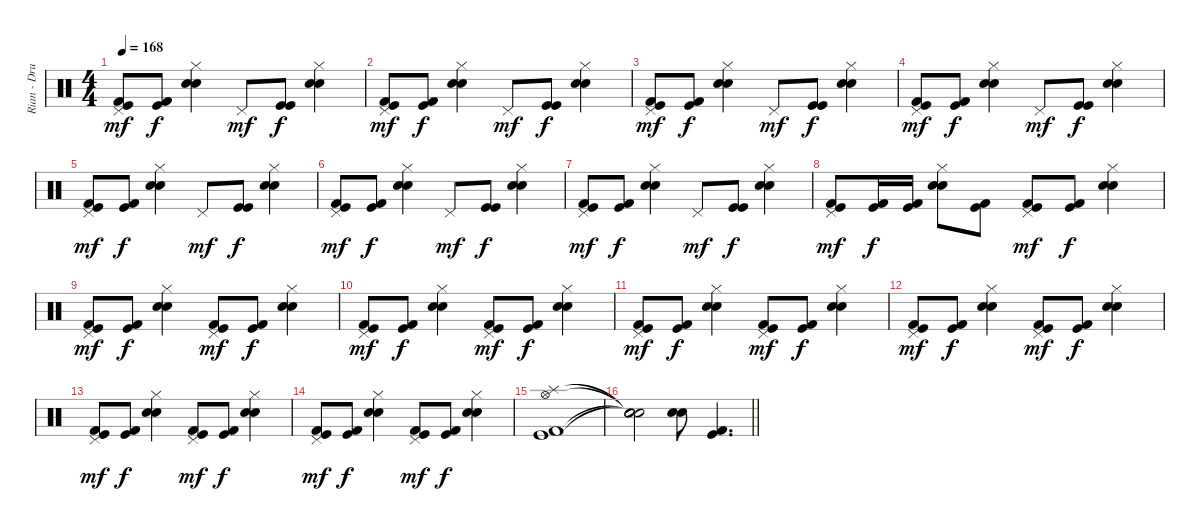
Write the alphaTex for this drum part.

\track ("Rian - Drums" "Rian - Dru") {instrument percussion}
\staff {score}
\articulation defaults
\ts (4 4)
\tempo 168
\clef neutral
\ks c
("Kick (hit) 2" "Kick (hit)" "Pedal Hi-Hat (hit)").8{dy mf} ("Kick (hit) 2" "Kick (hit)").8{dy f} ("Electric Snare (hit)" "Electric Snare (hit)" "Hi-Hat (closed)").4 "Pedal Hi-Hat (hit)".8{dy mf} ("Kick (hit)" "Kick (hit)").8{dy f} ("Electric Snare (hit)" "Electric Snare (hit)" "Hi-Hat (closed)").4 |
("Kick (hit) 2" "Kick (hit)" "Pedal Hi-Hat (hit)").8{dy mf} ("Kick (hit) 2" "Kick (hit)").8{dy f} ("Electric Snare (hit)" "Electric Snare (hit)" "Hi-Hat (closed)").4 "Pedal Hi-Hat (hit)".8{dy mf} ("Kick (hit)" "Kick (hit)").8{dy f} ("Electric Snare (hit)" "Electric Snare (hit)" "Hi-Hat (closed)").4 |
("Kick (hit) 2" "Kick (hit)" "Pedal Hi-Hat (hit)").8{dy mf} ("Kick (hit) 2" "Kick (hit)").8{dy f} ("Electric Snare (hit)" "Electric Snare (hit)" "Hi-Hat (closed)").4 "Pedal Hi-Hat (hit)".8{dy mf} ("Kick (hit)" "Kick (hit)").8{dy f} ("Electric Snare (hit)" "Electric Snare (hit)" "Hi-Hat (closed)").4 |
("Kick (hit) 2" "Kick (hit)" "Pedal Hi-Hat (hit)").8{dy mf} ("Kick (hit) 2" "Kick (hit)").8{dy f} ("Electric Snare (hit)" "Electric Snare (hit)" "Hi-Hat (closed)").4 "Pedal Hi-Hat (hit)".8{dy mf} ("Kick (hit)" "Kick (hit)").8{dy f} ("Electric Snare (hit)" "Electric Snare (hit)" "Hi-Hat (closed)").4 |
("Kick (hit) 2" "Kick (hit)" "Pedal Hi-Hat (hit)").8{dy mf} ("Kick (hit) 2" "Kick (hit)").8{dy f} ("Electric Snare (hit)" "Electric Snare (hit)" "Hi-Hat (closed)").4 "Pedal Hi-Hat (hit)".8{dy mf} ("Kick (hit)" "Kick (hit)").8{dy f} ("Electric Snare (hit)" "Electric Snare (hit)" "Hi-Hat (closed)").4 |
("Kick (hit) 2" "Kick (hit)" "Pedal Hi-Hat (hit)").8{dy mf} ("Kick (hit) 2" "Kick (hit)").8{dy f} ("Electric Snare (hit)" "Electric Snare (hit)" "Hi-Hat (closed)").4 "Pedal Hi-Hat (hit)".8{dy mf} ("Kick (hit)" "Kick (hit)").8{dy f} ("Electric Snare (hit)" "Electric Snare (hit)" "Hi-Hat (closed)").4 |
("Kick (hit) 2" "Kick (hit)" "Pedal Hi-Hat (hit)").8{dy mf} ("Kick (hit) 2" "Kick (hit)").8{dy f} ("Electric Snare (hit)" "Electric Snare (hit)" "Hi-Hat (closed)").4 "Pedal Hi-Hat (hit)".8{dy mf} ("Kick (hit)" "Kick (hit)").8{dy f} ("Electric Snare (hit)" "Electric Snare (hit)" "Hi-Hat (closed)").4 |
("Kick (hit) 2" "Kick (hit)" "Pedal Hi-Hat (hit)").8{dy mf} ("Kick (hit) 2" "Kick (hit)").16{dy f} ("Kick (hit) 2" "Kick (hit)").16 ("Electric Snare (hit)" "Electric Snare (hit)" "Hi-Hat (closed)").8 ("Kick (hit) 2" "Kick (hit)").8 ("Kick (hit) 2" "Kick (hit)" "Pedal Hi-Hat (hit)").8{dy mf} ("Kick (hit) 2" "Kick (hit)").8{dy f} ("Electric Snare (hit)" "Electric Snare (hit)" "Hi-Hat (closed)").4 |
("Kick (hit) 2" "Kick (hit)" "Pedal Hi-Hat (hit)").8{dy mf} ("Kick (hit) 2" "Kick (hit)").8{dy f} ("Electric Snare (hit)" "Electric Snare (hit)" "Hi-Hat (closed)").4 ("Kick (hit) 2" "Kick (hit)" "Pedal Hi-Hat (hit)").8{dy mf} ("Kick (hit) 2" "Kick (hit)").8{dy f} ("Electric Snare (hit)" "Electric Snare (hit)" "Hi-Hat (closed)").4 |
("Kick (hit) 2" "Kick (hit)" "Pedal Hi-Hat (hit)").8{dy mf} ("Kick (hit) 2" "Kick (hit)").8{dy f} ("Electric Snare (hit)" "Electric Snare (hit)" "Hi-Hat (closed)").4 ("Kick (hit) 2" "Kick (hit)" "Pedal Hi-Hat (hit)").8{dy mf} ("Kick (hit) 2" "Kick (hit)").8{dy f} ("Electric Snare (hit)" "Electric Snare (hit)" "Hi-Hat (closed)").4 |
("Kick (hit) 2" "Kick (hit)" "Pedal Hi-Hat (hit)").8{dy mf} ("Kick (hit) 2" "Kick (hit)").8{dy f} ("Electric Snare (hit)" "Electric Snare (hit)" "Hi-Hat (closed)").4 ("Kick (hit) 2" "Kick (hit)" "Pedal Hi-Hat (hit)").8{dy mf} ("Kick (hit) 2" "Kick (hit)").8{dy f} ("Electric Snare (hit)" "Electric Snare (hit)" "Hi-Hat (closed)").4 |
("Kick (hit) 2" "Kick (hit)" "Pedal Hi-Hat (hit)").8{dy mf} ("Kick (hit) 2" "Kick (hit)").8{dy f} ("Electric Snare (hit)" "Electric Snare (hit)" "Hi-Hat (closed)").4 ("Kick (hit) 2" "Kick (hit)" "Pedal Hi-Hat (hit)").8{dy mf} ("Kick (hit) 2" "Kick (hit)").8{dy f} ("Electric Snare (hit)" "Electric Snare (hit)" "Hi-Hat (closed)").4 |
("Kick (hit) 2" "Kick (hit)" "Pedal Hi-Hat (hit)").8{dy mf} ("Kick (hit) 2" "Kick (hit)").8{dy f} ("Electric Snare (hit)" "Electric Snare (hit)" "Hi-Hat (closed)").4 ("Kick (hit) 2" "Kick (hit)" "Pedal Hi-Hat (hit)").8{dy mf} ("Kick (hit) 2" "Kick (hit)").8{dy f} ("Electric Snare (hit)" "Electric Snare (hit)" "Hi-Hat (closed)").4 |
("Kick (hit) 2" "Kick (hit)" "Pedal Hi-Hat (hit)").8{dy mf} ("Kick (hit) 2" "Kick (hit)").8{dy f} ("Electric Snare (hit)" "Electric Snare (hit)" "Hi-Hat (closed)").4 ("Kick (hit) 2" "Kick (hit)" "Pedal Hi-Hat (hit)").8{dy mf} ("Kick (hit) 2" "Kick (hit)").8{dy f} ("Electric Snare (hit)" "Electric Snare (hit)" "Hi-Hat (closed)").4 |
("Kick (hit) 2" "Kick (hit)" "Hi-Hat (open)" "Splash (hit)").1 |
\barLineRight lightlight
("Snare (hit)"{t} "Snare (hit)"{t} "Snare (hit)"{t} "Snare (hit)"{t}).2 ("Electric Snare (hit)" "Electric Snare (hit)").8 ("Kick (hit) 2" "Kick (hit)").4{d}
